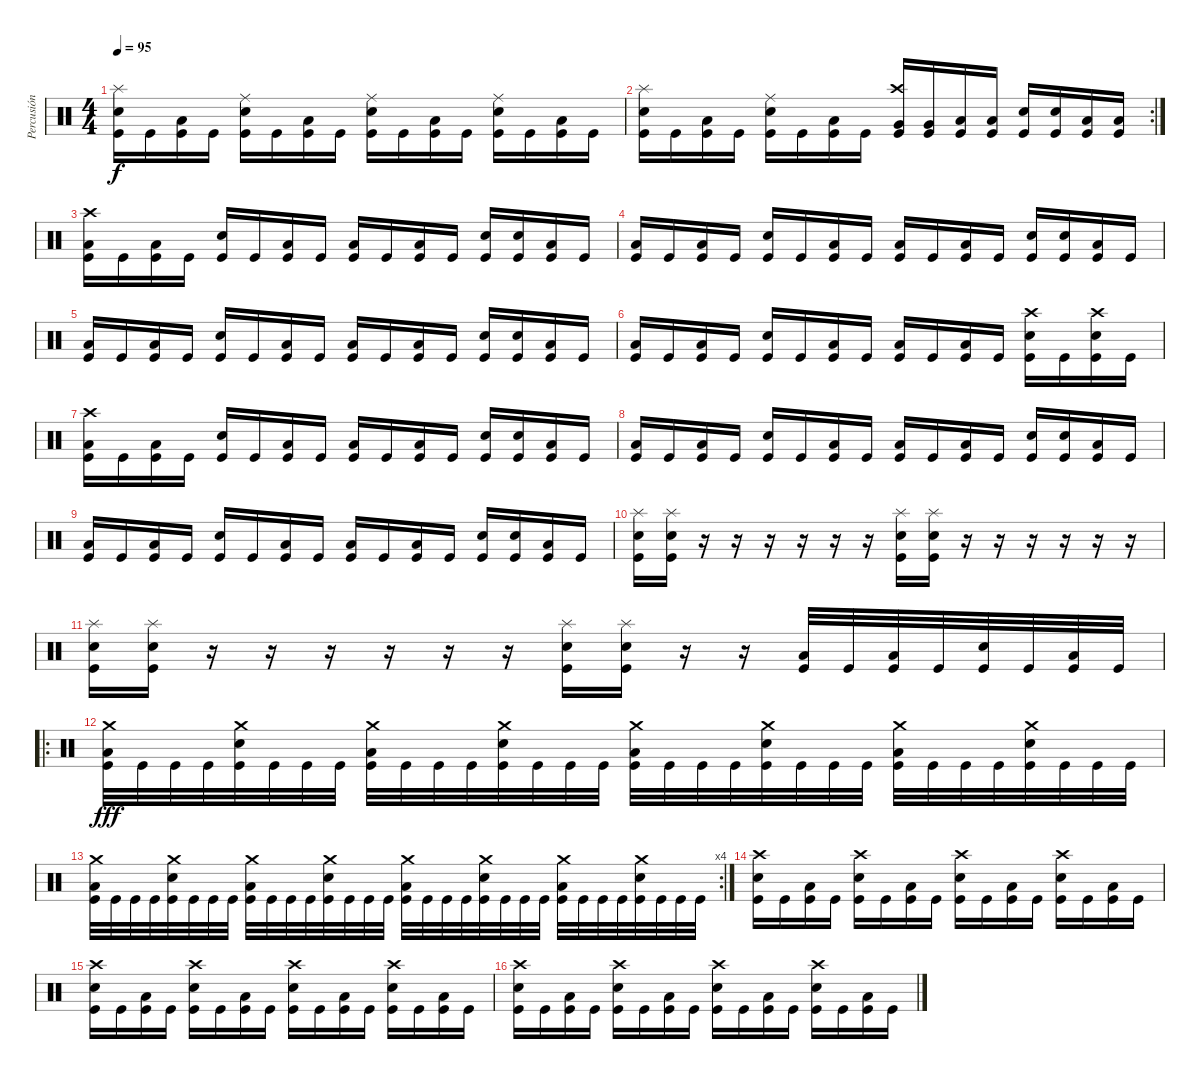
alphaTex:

\track ("Percusión" "Percusión") {instrument percussion}
\staff {score}
\articulation defaults
\ts (4 4)
\tempo 95
\clef neutral
\ks c
("Splash (hit)" "Snare (hit) 2" "Kick (hit)").16{dy f} "Kick (hit)".16 ("Low Floor Tom (hit)" "Kick (hit)").16 "Kick (hit)".16 ("Ride (middle)" "Snare (hit) 2" "Kick (hit)").16 "Kick (hit)".16 ("Low Floor Tom (hit)" "Kick (hit)").16 "Kick (hit)".16 ("Ride (middle)" "Snare (hit) 2" "Kick (hit)").16 "Kick (hit)".16 ("Low Floor Tom (hit)" "Kick (hit)").16 "Kick (hit)".16 ("Ride (middle)" "Snare (hit) 2" "Kick (hit)").16 "Kick (hit)".16 ("Low Floor Tom (hit)" "Kick (hit)").16 "Kick (hit)".16 |
\rc 2
("Splash (hit)" "Snare (hit) 2" "Kick (hit)").16 "Kick (hit)".16 ("Low Floor Tom (hit)" "Kick (hit)").16 "Kick (hit)".16 ("Ride (middle)" "Snare (hit) 2" "Kick (hit)").16 "Kick (hit)".16 ("Low Floor Tom (hit)" "Kick (hit)").16 "Kick (hit)".16 ("Crash high (hit)" "Very Low Tom (hit)" "Kick (hit)").16 ("Very Low Tom (hit)" "Kick (hit)").16 ("Low Floor Tom (hit)" "Kick (hit)").16 ("Low Floor Tom (hit)" "Kick (hit)").16 ("Snare (hit) 2" "Kick (hit)").16 ("Snare (hit) 2" "Kick (hit)").16 ("Low Floor Tom (hit)" "Kick (hit)").16 ("Low Floor Tom (hit)" "Kick (hit)").16 |
("Crash high (hit)" "Low Floor Tom (hit)" "Kick (hit)").16 "Kick (hit)".16 ("Low Floor Tom (hit)" "Kick (hit)").16 "Kick (hit)".16 ("Snare (hit) 2" "Kick (hit)").16 "Kick (hit)".16 ("Low Floor Tom (hit)" "Kick (hit)").16 "Kick (hit)".16 ("Low Floor Tom (hit)" "Kick (hit)").16 "Kick (hit)".16 ("Low Floor Tom (hit)" "Kick (hit)").16 "Kick (hit)".16 ("Snare (hit) 2" "Kick (hit)").16 ("Snare (hit) 2" "Kick (hit)").16 ("Low Floor Tom (hit)" "Kick (hit)").16 "Kick (hit)".16 |
("Low Floor Tom (hit)" "Kick (hit)").16 "Kick (hit)".16 ("Low Floor Tom (hit)" "Kick (hit)").16 "Kick (hit)".16 ("Snare (hit) 2" "Kick (hit)").16 "Kick (hit)".16 ("Low Floor Tom (hit)" "Kick (hit)").16 "Kick (hit)".16 ("Low Floor Tom (hit)" "Kick (hit)").16 "Kick (hit)".16 ("Low Floor Tom (hit)" "Kick (hit)").16 "Kick (hit)".16 ("Snare (hit) 2" "Kick (hit)").16 ("Snare (hit) 2" "Kick (hit)").16 ("Low Floor Tom (hit)" "Kick (hit)").16 "Kick (hit)".16 |
("Low Floor Tom (hit)" "Kick (hit)").16 "Kick (hit)".16 ("Low Floor Tom (hit)" "Kick (hit)").16 "Kick (hit)".16 ("Snare (hit) 2" "Kick (hit)").16 "Kick (hit)".16 ("Low Floor Tom (hit)" "Kick (hit)").16 "Kick (hit)".16 ("Low Floor Tom (hit)" "Kick (hit)").16 "Kick (hit)".16 ("Low Floor Tom (hit)" "Kick (hit)").16 "Kick (hit)".16 ("Snare (hit) 2" "Kick (hit)").16 ("Snare (hit) 2" "Kick (hit)").16 ("Low Floor Tom (hit)" "Kick (hit)").16 "Kick (hit)".16 |
("Low Floor Tom (hit)" "Kick (hit)").16 "Kick (hit)".16 ("Low Floor Tom (hit)" "Kick (hit)").16 "Kick (hit)".16 ("Snare (hit) 2" "Kick (hit)").16 "Kick (hit)".16 ("Low Floor Tom (hit)" "Kick (hit)").16 "Kick (hit)".16 ("Low Floor Tom (hit)" "Kick (hit)").16 "Kick (hit)".16 ("Low Floor Tom (hit)" "Kick (hit)").16 "Kick (hit)".16 ("Crash high (hit)" "Snare (hit) 2" "Kick (hit)").16 "Kick (hit)".16 ("Crash high (hit)" "Snare (hit) 2" "Kick (hit)").16 "Kick (hit)".16 |
("Crash high (hit)" "Low Floor Tom (hit)" "Kick (hit)").16 "Kick (hit)".16 ("Low Floor Tom (hit)" "Kick (hit)").16 "Kick (hit)".16 ("Snare (hit) 2" "Kick (hit)").16 "Kick (hit)".16 ("Low Floor Tom (hit)" "Kick (hit)").16 "Kick (hit)".16 ("Low Floor Tom (hit)" "Kick (hit)").16 "Kick (hit)".16 ("Low Floor Tom (hit)" "Kick (hit)").16 "Kick (hit)".16 ("Snare (hit) 2" "Kick (hit)").16 ("Snare (hit) 2" "Kick (hit)").16 ("Low Floor Tom (hit)" "Kick (hit)").16 "Kick (hit)".16 |
("Low Floor Tom (hit)" "Kick (hit)").16 "Kick (hit)".16 ("Low Floor Tom (hit)" "Kick (hit)").16 "Kick (hit)".16 ("Snare (hit) 2" "Kick (hit)").16 "Kick (hit)".16 ("Low Floor Tom (hit)" "Kick (hit)").16 "Kick (hit)".16 ("Low Floor Tom (hit)" "Kick (hit)").16 "Kick (hit)".16 ("Low Floor Tom (hit)" "Kick (hit)").16 "Kick (hit)".16 ("Snare (hit) 2" "Kick (hit)").16 ("Snare (hit) 2" "Kick (hit)").16 ("Low Floor Tom (hit)" "Kick (hit)").16 "Kick (hit)".16 |
("Low Floor Tom (hit)" "Kick (hit)").16 "Kick (hit)".16 ("Low Floor Tom (hit)" "Kick (hit)").16 "Kick (hit)".16 ("Snare (hit) 2" "Kick (hit)").16 "Kick (hit)".16 ("Low Floor Tom (hit)" "Kick (hit)").16 "Kick (hit)".16 ("Low Floor Tom (hit)" "Kick (hit)").16 "Kick (hit)".16 ("Low Floor Tom (hit)" "Kick (hit)").16 "Kick (hit)".16 ("Snare (hit) 2" "Kick (hit)").16 ("Snare (hit) 2" "Kick (hit)").16 ("Low Floor Tom (hit)" "Kick (hit)").16 "Kick (hit)".16 |
("Splash (hit)" "Snare (hit) 2" "Kick (hit)").16 ("Splash (hit)" "Snare (hit) 2" "Kick (hit)").16 r.16 r.16 r.16 r.16 r.16 r.16 ("Splash (hit)" "Snare (hit) 2" "Kick (hit)").16 ("Splash (hit)" "Snare (hit) 2" "Kick (hit)").16 r.16 r.16 r.16 r.16 r.16 r.16 |
("Splash (hit)" "Snare (hit) 2" "Kick (hit)").16 ("Splash (hit)" "Snare (hit) 2" "Kick (hit)").16 r.16 r.16 r.16 r.16 r.16 r.16 ("Splash (hit)" "Snare (hit) 2" "Kick (hit)").16 ("Splash (hit)" "Snare (hit) 2" "Kick (hit)").16 r.16 r.16 ("Kick (hit)" "Low Floor Tom (hit)").32 "Kick (hit)".32 ("Kick (hit)" "Low Floor Tom (hit)").32 "Kick (hit)".32 ("Kick (hit)" "Snare (hit) 2").32 "Kick (hit)".32 ("Kick (hit)" "Low Floor Tom (hit)").32 "Kick (hit)".32 |
\ro
("Crash medium (hit)" "Low Floor Tom (hit)" "Kick (hit)").32{dy fff} "Kick (hit)".32 "Kick (hit)".32 "Kick (hit)".32 ("Crash medium (hit)" "Snare (hit) 2" "Kick (hit)").32 "Kick (hit)".32 "Kick (hit)".32 "Kick (hit)".32 ("Crash medium (hit)" "Low Floor Tom (hit)" "Kick (hit)").32 "Kick (hit)".32 "Kick (hit)".32 "Kick (hit)".32 ("Crash medium (hit)" "Snare (hit) 2" "Kick (hit)").32 "Kick (hit)".32 "Kick (hit)".32 "Kick (hit)".32 ("Crash medium (hit)" "Low Floor Tom (hit)" "Kick (hit)").32 "Kick (hit)".32 "Kick (hit)".32 "Kick (hit)".32 ("Crash medium (hit)" "Snare (hit) 2" "Kick (hit)").32 "Kick (hit)".32 "Kick (hit)".32 "Kick (hit)".32 ("Crash medium (hit)" "Low Floor Tom (hit)" "Kick (hit)").32 "Kick (hit)".32 "Kick (hit)".32 "Kick (hit)".32 ("Crash medium (hit)" "Snare (hit) 2" "Kick (hit)").32 "Kick (hit)".32 "Kick (hit)".32 "Kick (hit)".32 |
\rc 4
("Crash medium (hit)" "Low Floor Tom (hit)" "Kick (hit)").32 "Kick (hit)".32 "Kick (hit)".32 "Kick (hit)".32 ("Crash medium (hit)" "Snare (hit) 2" "Kick (hit)").32 "Kick (hit)".32 "Kick (hit)".32 "Kick (hit)".32 ("Crash medium (hit)" "Low Floor Tom (hit)" "Kick (hit)").32 "Kick (hit)".32 "Kick (hit)".32 "Kick (hit)".32 ("Crash medium (hit)" "Snare (hit) 2" "Kick (hit)").32 "Kick (hit)".32 "Kick (hit)".32 "Kick (hit)".32 ("Crash medium (hit)" "Low Floor Tom (hit)" "Kick (hit)").32 "Kick (hit)".32 "Kick (hit)".32 "Kick (hit)".32 ("Crash medium (hit)" "Snare (hit) 2" "Kick (hit)").32 "Kick (hit)".32 "Kick (hit)".32 "Kick (hit)".32 ("Crash medium (hit)" "Low Floor Tom (hit)" "Kick (hit)").32 "Kick (hit)".32 "Kick (hit)".32 "Kick (hit)".32 ("Crash medium (hit)" "Snare (hit) 2" "Kick (hit)").32 "Kick (hit)".32 "Kick (hit)".32 "Kick (hit)".32 |
("Crash high (hit)" "Snare (hit) 2" "Kick (hit)").16 "Kick (hit)".16 ("Low Floor Tom (hit)" "Kick (hit)").16 "Kick (hit)".16 ("Crash high (hit)" "Snare (hit) 2" "Kick (hit)").16 "Kick (hit)".16 ("Low Floor Tom (hit)" "Kick (hit)").16 "Kick (hit)".16 ("Crash high (hit)" "Snare (hit) 2" "Kick (hit)").16 "Kick (hit)".16 ("Low Floor Tom (hit)" "Kick (hit)").16 "Kick (hit)".16 ("Crash high (hit)" "Snare (hit) 2" "Kick (hit)").16 "Kick (hit)".16 ("Low Floor Tom (hit)" "Kick (hit)").16 "Kick (hit)".16 |
("Crash high (hit)" "Snare (hit) 2" "Kick (hit)").16 "Kick (hit)".16 ("Low Floor Tom (hit)" "Kick (hit)").16 "Kick (hit)".16 ("Crash high (hit)" "Snare (hit) 2" "Kick (hit)").16 "Kick (hit)".16 ("Low Floor Tom (hit)" "Kick (hit)").16 "Kick (hit)".16 ("Crash high (hit)" "Snare (hit) 2" "Kick (hit)").16 "Kick (hit)".16 ("Low Floor Tom (hit)" "Kick (hit)").16 "Kick (hit)".16 ("Crash high (hit)" "Snare (hit) 2" "Kick (hit)").16 "Kick (hit)".16 ("Low Floor Tom (hit)" "Kick (hit)").16 "Kick (hit)".16 |
("Crash high (hit)" "Snare (hit) 2" "Kick (hit)").16 "Kick (hit)".16 ("Low Floor Tom (hit)" "Kick (hit)").16 "Kick (hit)".16 ("Crash high (hit)" "Snare (hit) 2" "Kick (hit)").16 "Kick (hit)".16 ("Low Floor Tom (hit)" "Kick (hit)").16 "Kick (hit)".16 ("Crash high (hit)" "Snare (hit) 2" "Kick (hit)").16 "Kick (hit)".16 ("Low Floor Tom (hit)" "Kick (hit)").16 "Kick (hit)".16 ("Crash high (hit)" "Snare (hit) 2" "Kick (hit)").16 "Kick (hit)".16 ("Low Floor Tom (hit)" "Kick (hit)").16 "Kick (hit)".16
